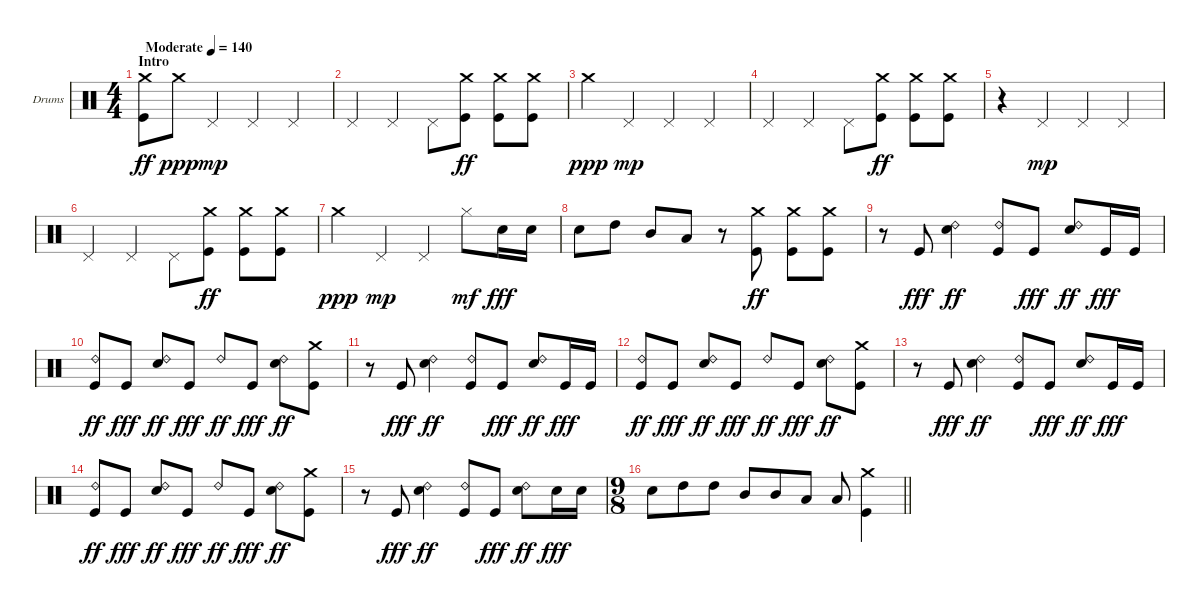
\bracketExtendMode groupsimilarinstruments
\firstSystemTrackNameOrientation horizontal
\otherSystemsTrackNameOrientation horizontal
\track ("Drumkit" "Drums") {instrument percussion}
\staff {score}
\articulation defaults
\ts (4 4)
\beaming (8 2 2 2 2)
\section ("" "Intro ")
\tempo (140 "Moderate")
\clef neutral
\ks c
("Crash medium (hit)" "Kick (hit)").8{dy ff} "Crash medium (hit)".8{dy ppp} "Pedal Hi-Hat (hit)".4{dy mp} "Pedal Hi-Hat (hit)".4 "Pedal Hi-Hat (hit)".4 |
"Pedal Hi-Hat (hit)".4 "Pedal Hi-Hat (hit)".4 "Pedal Hi-Hat (hit)".8 ("Crash medium (hit)" "Kick (hit)").8{dy ff} ("Crash medium (hit)" "Kick (hit)").8 ("Crash medium (hit)" "Kick (hit)").8 |
"Crash medium (hit)".4{dy ppp} "Pedal Hi-Hat (hit)".4{dy mp} "Pedal Hi-Hat (hit)".4 "Pedal Hi-Hat (hit)".4 |
"Pedal Hi-Hat (hit)".4 "Pedal Hi-Hat (hit)".4 "Pedal Hi-Hat (hit)".8 ("Crash medium (hit)" "Kick (hit)").8{dy ff} ("Crash medium (hit)" "Kick (hit)").8 ("Crash medium (hit)" "Kick (hit)").8 |
r.4 "Pedal Hi-Hat (hit)".4{dy mp} "Pedal Hi-Hat (hit)".4 "Pedal Hi-Hat (hit)".4 |
"Pedal Hi-Hat (hit)".4 "Pedal Hi-Hat (hit)".4 "Pedal Hi-Hat (hit)".8 ("Crash medium (hit)" "Kick (hit)").8{dy ff} ("Crash medium (hit)" "Kick (hit)").8 ("Crash medium (hit)" "Kick (hit)").8 |
"Crash medium (hit)".4{dy ppp} "Pedal Hi-Hat (hit)".4{dy mp} "Pedal Hi-Hat (hit)".4 "Hi-Hat (closed)".8{dy mf} "Snare (hit) 2".16{dy fff} "Snare (hit) 2".16 |
"Snare (hit) 2".8 "High Tom (hit)".8 "Mid Tom (hit)".8 "Low Tom (hit)".8 r.8 ("Crash medium (hit)" "Kick (hit)").8{dy ff} ("Crash medium (hit)" "Kick (hit)").8 ("Crash medium (hit)" "Kick (hit)").8 |
r.8 "Kick (hit)".8{dy fff} ("Ride (bell) 2" "Snare (hit) 2").4{dy ff} ("Ride (bell) 2" "Kick (hit)").8 "Kick (hit)".8{dy fff} ("Ride (bell) 2" "Snare (hit) 2").8{dy ff} "Kick (hit)".16{dy fff} "Kick (hit)".16 |
("Ride (bell) 2" "Kick (hit)").8{dy ff} "Kick (hit)".8{dy fff} ("Ride (bell) 2" "Snare (hit) 2").8{dy ff} "Kick (hit)".8{dy fff} "Ride (bell) 2".8{dy ff} "Kick (hit)".8{dy fff} ("Ride (bell) 2" "Snare (hit) 2").8{dy ff} ("Crash medium (hit)" "Kick (hit)").8 |
r.8 "Kick (hit)".8{dy fff} ("Ride (bell) 2" "Snare (hit) 2").4{dy ff} ("Ride (bell) 2" "Kick (hit)").8 "Kick (hit)".8{dy fff} ("Ride (bell) 2" "Snare (hit) 2").8{dy ff} "Kick (hit)".16{dy fff} "Kick (hit)".16 |
("Ride (bell) 2" "Kick (hit)").8{dy ff} "Kick (hit)".8{dy fff} ("Ride (bell) 2" "Snare (hit) 2").8{dy ff} "Kick (hit)".8{dy fff} "Ride (bell) 2".8{dy ff} "Kick (hit)".8{dy fff} ("Ride (bell) 2" "Snare (hit) 2").8{dy ff} ("Crash medium (hit)" "Kick (hit)").8 |
r.8 "Kick (hit)".8{dy fff} ("Ride (bell) 2" "Snare (hit) 2").4{dy ff} ("Ride (bell) 2" "Kick (hit)").8 "Kick (hit)".8{dy fff} ("Ride (bell) 2" "Snare (hit) 2").8{dy ff} "Kick (hit)".16{dy fff} "Kick (hit)".16 |
("Ride (bell) 2" "Kick (hit)").8{dy ff} "Kick (hit)".8{dy fff} ("Ride (bell) 2" "Snare (hit) 2").8{dy ff} "Kick (hit)".8{dy fff} "Ride (bell) 2".8{dy ff} "Kick (hit)".8{dy fff} ("Ride (bell) 2" "Snare (hit) 2").8{dy ff} ("Crash medium (hit)" "Kick (hit)").8 |
r.8 "Kick (hit)".8{dy fff} ("Ride (bell) 2" "Snare (hit) 2").4{dy ff} ("Ride (bell) 2" "Kick (hit)").8 "Kick (hit)".8{dy fff} ("Ride (bell) 2" "Snare (hit) 2").8{dy ff} "Snare (hit) 2".16{dy fff} "Snare (hit) 2".16 |
\ts (9 8)
\beaming (8 3 3 3)
\barLineRight lightlight "Snare (hit) 2".8 "High Tom (hit)".8 "High Tom (hit)".8 "Mid Tom (hit)".8 "Mid Tom (hit)".8 "Low Tom (hit)".8 "Low Tom (hit)".8
("Crash medium (hit)" "Kick (hit)").4
